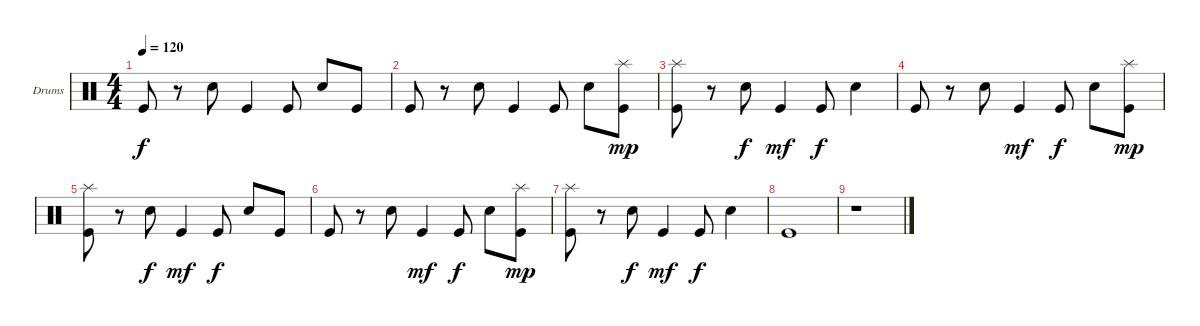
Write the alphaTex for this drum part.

\bracketExtendMode groupsimilarinstruments
\firstSystemTrackNameOrientation horizontal
\otherSystemsTrackNameOrientation horizontal
\track ("Drums" "Drums") {instrument percussion}
\staff {score}
\articulation defaults
\ts (4 4)
\tempo 120
\clef neutral
\ks c "Kick (hit)".8{dy f}
r.8 "Snare (hit) 2".8 "Kick (hit)".4 "Kick (hit)".8 "Snare (hit) 2".8 "Kick (hit)".8 |
"Kick (hit)".8 r.8 "Snare (hit) 2".8 "Kick (hit)".4 "Kick (hit)".8 "Snare (hit) 2".8 ("Splash (hit)" "Kick (hit)").8{dy mp} |
("Splash (hit)" "Kick (hit)").8 r.8 "Snare (hit) 2".8{dy f} "Kick (hit)".4{dy mf} "Kick (hit)".8{dy f} "Snare (hit) 2".4 |
"Kick (hit)".8 r.8 "Snare (hit) 2".8 "Kick (hit)".4{dy mf} "Kick (hit)".8{dy f} "Snare (hit) 2".8 ("Splash (hit)" "Kick (hit)").8{dy mp} |
("Splash (hit)" "Kick (hit)").8 r.8 "Snare (hit) 2".8{dy f} "Kick (hit)".4{dy mf} "Kick (hit)".8{dy f} "Snare (hit) 2".8 "Kick (hit)".8 |
"Kick (hit)".8 r.8 "Snare (hit) 2".8 "Kick (hit)".4{dy mf} "Kick (hit)".8{dy f} "Snare (hit) 2".8 ("Splash (hit)" "Kick (hit)").8{dy mp} |
("Splash (hit)" "Kick (hit)").8 r.8 "Snare (hit) 2".8{dy f} "Kick (hit)".4{dy mf} "Kick (hit)".8{dy f} "Snare (hit) 2".4 |
"Kick (hit)".1 |
r.1
